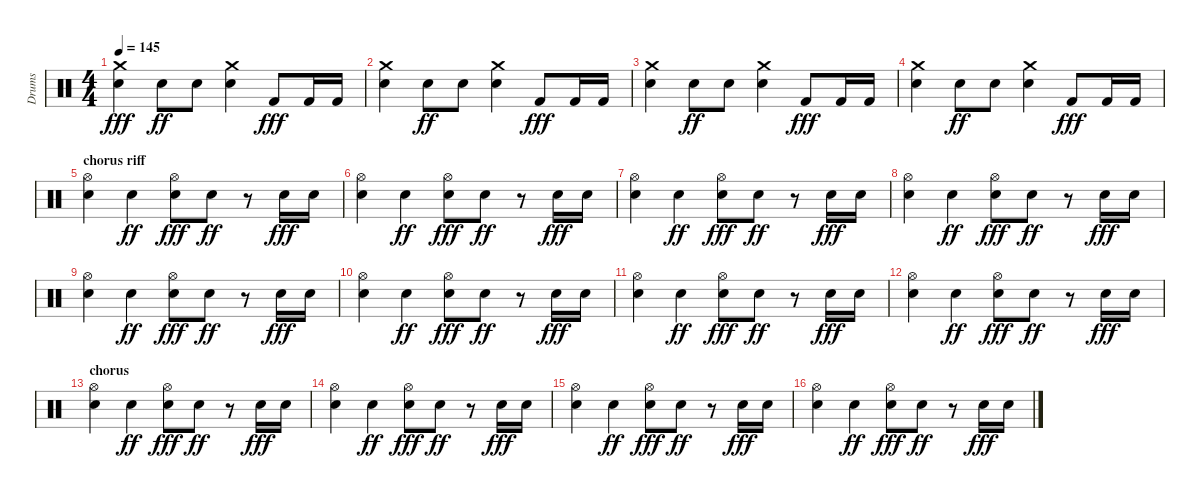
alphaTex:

\track ("Drums" "Drums") {instrument percussion}
\staff {score}
\articulation defaults
\ts (4 4)
\tempo 145
\clef neutral
\ks c
("Snare (hit) 2" "Crash medium (hit)").4{dy fff} "Snare (hit) 2".8{dy ff} "Snare (hit) 2".8 ("Crash medium (hit)" "Snare (hit) 2").4 "Kick (hit) 2".8{dy fff} "Kick (hit) 2".16 "Kick (hit) 2".16 |
("Snare (hit) 2" "Crash medium (hit)").4 "Snare (hit) 2".8{dy ff} "Snare (hit) 2".8 ("Crash medium (hit)" "Snare (hit) 2").4 "Kick (hit) 2".8{dy fff} "Kick (hit) 2".16 "Kick (hit) 2".16 |
("Snare (hit) 2" "Crash medium (hit)").4 "Snare (hit) 2".8{dy ff} "Snare (hit) 2".8 ("Crash medium (hit)" "Snare (hit) 2").4 "Kick (hit) 2".8{dy fff} "Kick (hit) 2".16 "Kick (hit) 2".16 |
("Snare (hit) 2" "Crash medium (hit)").4 "Snare (hit) 2".8{dy ff} "Snare (hit) 2".8 ("Crash medium (hit)" "Snare (hit) 2").4 "Kick (hit) 2".8{dy fff} "Kick (hit) 2".16 "Kick (hit) 2".16 |
\section ("" "chorus riff")
("Electric Snare (hit)" "Hi-Hat (open)").4 "Electric Snare (hit)".4{dy ff} ("Electric Snare (hit)" "Hi-Hat (open)").8{dy fff} "Electric Snare (hit)".8{dy ff} r.8 "Electric Snare (hit)".16{dy fff} "Electric Snare (hit)".16 |
("Electric Snare (hit)" "Hi-Hat (open)").4 "Electric Snare (hit)".4{dy ff} ("Electric Snare (hit)" "Hi-Hat (open)").8{dy fff} "Electric Snare (hit)".8{dy ff} r.8 "Electric Snare (hit)".16{dy fff} "Electric Snare (hit)".16 |
("Electric Snare (hit)" "Hi-Hat (open)").4 "Electric Snare (hit)".4{dy ff} ("Electric Snare (hit)" "Hi-Hat (open)").8{dy fff} "Electric Snare (hit)".8{dy ff} r.8 "Electric Snare (hit)".16{dy fff} "Electric Snare (hit)".16 |
("Electric Snare (hit)" "Hi-Hat (open)").4 "Electric Snare (hit)".4{dy ff} ("Electric Snare (hit)" "Hi-Hat (open)").8{dy fff} "Electric Snare (hit)".8{dy ff} r.8 "Electric Snare (hit)".16{dy fff} "Electric Snare (hit)".16 |
("Electric Snare (hit)" "Hi-Hat (open)").4 "Electric Snare (hit)".4{dy ff} ("Electric Snare (hit)" "Hi-Hat (open)").8{dy fff} "Electric Snare (hit)".8{dy ff} r.8 "Electric Snare (hit)".16{dy fff} "Electric Snare (hit)".16 |
("Electric Snare (hit)" "Hi-Hat (open)").4 "Electric Snare (hit)".4{dy ff} ("Electric Snare (hit)" "Hi-Hat (open)").8{dy fff} "Electric Snare (hit)".8{dy ff} r.8 "Electric Snare (hit)".16{dy fff} "Electric Snare (hit)".16 |
("Electric Snare (hit)" "Hi-Hat (open)").4 "Electric Snare (hit)".4{dy ff} ("Electric Snare (hit)" "Hi-Hat (open)").8{dy fff} "Electric Snare (hit)".8{dy ff} r.8 "Electric Snare (hit)".16{dy fff} "Electric Snare (hit)".16 |
("Electric Snare (hit)" "Hi-Hat (open)").4 "Electric Snare (hit)".4{dy ff} ("Electric Snare (hit)" "Hi-Hat (open)").8{dy fff} "Electric Snare (hit)".8{dy ff} r.8 "Electric Snare (hit)".16{dy fff} "Electric Snare (hit)".16 |
\section ("" "chorus")
("Electric Snare (hit)" "Hi-Hat (open)").4 "Electric Snare (hit)".4{dy ff} ("Electric Snare (hit)" "Hi-Hat (open)").8{dy fff} "Electric Snare (hit)".8{dy ff} r.8 "Electric Snare (hit)".16{dy fff} "Electric Snare (hit)".16 |
("Electric Snare (hit)" "Hi-Hat (open)").4 "Electric Snare (hit)".4{dy ff} ("Electric Snare (hit)" "Hi-Hat (open)").8{dy fff} "Electric Snare (hit)".8{dy ff} r.8 "Electric Snare (hit)".16{dy fff} "Electric Snare (hit)".16 |
("Electric Snare (hit)" "Hi-Hat (open)").4 "Electric Snare (hit)".4{dy ff} ("Electric Snare (hit)" "Hi-Hat (open)").8{dy fff} "Electric Snare (hit)".8{dy ff} r.8 "Electric Snare (hit)".16{dy fff} "Electric Snare (hit)".16 |
("Electric Snare (hit)" "Hi-Hat (open)").4 "Electric Snare (hit)".4{dy ff} ("Electric Snare (hit)" "Hi-Hat (open)").8{dy fff} "Electric Snare (hit)".8{dy ff} r.8 "Electric Snare (hit)".16{dy fff} "Electric Snare (hit)".16
